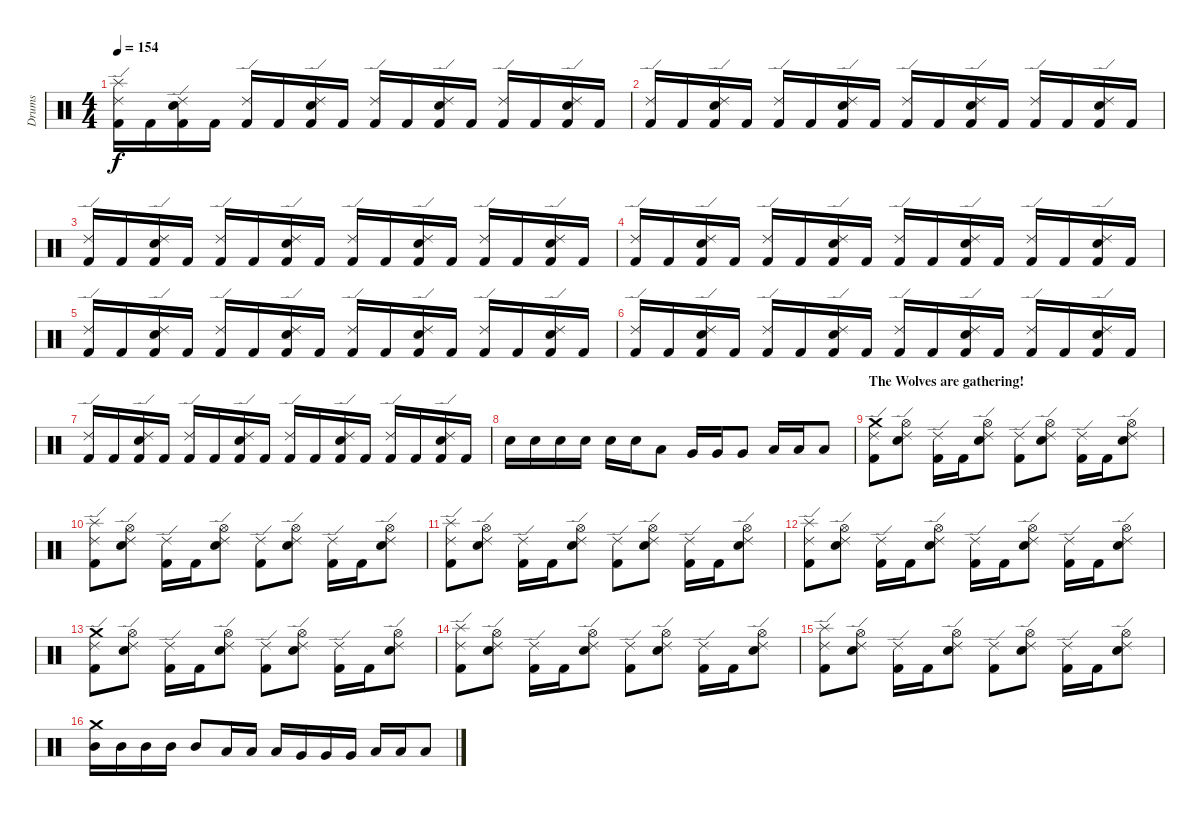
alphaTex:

\track ("Drums" "Drums") {instrument percussion}
\staff {score}
\articulation defaults
\ts (4 4)
\tempo 154
\clef neutral
\ks c
("Splash (hit)" "Ride (edge) 2" "Kick (hit) 2").16{dy f} "Kick (hit) 2".16 ("Ride (edge) 2" "Snare (hit) 2" "Kick (hit) 2").16 "Kick (hit) 2".16 ("Ride (edge) 2" "Kick (hit) 2").16 "Kick (hit) 2".16 ("Ride (edge) 2" "Snare (hit) 2" "Kick (hit) 2").16 "Kick (hit) 2".16 ("Ride (edge) 2" "Kick (hit) 2").16 "Kick (hit) 2".16 ("Ride (edge) 2" "Snare (hit) 2" "Kick (hit) 2").16 "Kick (hit) 2".16 ("Ride (edge) 2" "Kick (hit) 2").16 "Kick (hit) 2".16 ("Ride (edge) 2" "Snare (hit) 2" "Kick (hit) 2").16 "Kick (hit) 2".16 |
("Ride (edge) 2" "Kick (hit) 2").16 "Kick (hit) 2".16 ("Ride (edge) 2" "Snare (hit) 2" "Kick (hit) 2").16 "Kick (hit) 2".16 ("Ride (edge) 2" "Kick (hit) 2").16 "Kick (hit) 2".16 ("Ride (edge) 2" "Snare (hit) 2" "Kick (hit) 2").16 "Kick (hit) 2".16 ("Ride (edge) 2" "Kick (hit) 2").16 "Kick (hit) 2".16 ("Ride (edge) 2" "Snare (hit) 2" "Kick (hit) 2").16 "Kick (hit) 2".16 ("Ride (edge) 2" "Kick (hit) 2").16 "Kick (hit) 2".16 ("Ride (edge) 2" "Snare (hit) 2" "Kick (hit) 2").16 "Kick (hit) 2".16 |
("Ride (edge) 2" "Kick (hit) 2").16 "Kick (hit) 2".16 ("Ride (edge) 2" "Snare (hit) 2" "Kick (hit) 2").16 "Kick (hit) 2".16 ("Ride (edge) 2" "Kick (hit) 2").16 "Kick (hit) 2".16 ("Ride (edge) 2" "Snare (hit) 2" "Kick (hit) 2").16 "Kick (hit) 2".16 ("Ride (edge) 2" "Kick (hit) 2").16 "Kick (hit) 2".16 ("Ride (edge) 2" "Snare (hit) 2" "Kick (hit) 2").16 "Kick (hit) 2".16 ("Ride (edge) 2" "Kick (hit) 2").16 "Kick (hit) 2".16 ("Ride (edge) 2" "Snare (hit) 2" "Kick (hit) 2").16 "Kick (hit) 2".16 |
("Ride (edge) 2" "Kick (hit) 2").16 "Kick (hit) 2".16 ("Ride (edge) 2" "Snare (hit) 2" "Kick (hit) 2").16 "Kick (hit) 2".16 ("Ride (edge) 2" "Kick (hit) 2").16 "Kick (hit) 2".16 ("Ride (edge) 2" "Snare (hit) 2" "Kick (hit) 2").16 "Kick (hit) 2".16 ("Ride (edge) 2" "Kick (hit) 2").16 "Kick (hit) 2".16 ("Ride (edge) 2" "Snare (hit) 2" "Kick (hit) 2").16 "Kick (hit) 2".16 ("Ride (edge) 2" "Kick (hit) 2").16 "Kick (hit) 2".16 ("Ride (edge) 2" "Snare (hit) 2" "Kick (hit) 2").16 "Kick (hit) 2".16 |
("Ride (edge) 2" "Kick (hit) 2").16 "Kick (hit) 2".16 ("Ride (edge) 2" "Snare (hit) 2" "Kick (hit) 2").16 "Kick (hit) 2".16 ("Ride (edge) 2" "Kick (hit) 2").16 "Kick (hit) 2".16 ("Ride (edge) 2" "Snare (hit) 2" "Kick (hit) 2").16 "Kick (hit) 2".16 ("Ride (edge) 2" "Kick (hit) 2").16 "Kick (hit) 2".16 ("Ride (edge) 2" "Snare (hit) 2" "Kick (hit) 2").16 "Kick (hit) 2".16 ("Ride (edge) 2" "Kick (hit) 2").16 "Kick (hit) 2".16 ("Ride (edge) 2" "Snare (hit) 2" "Kick (hit) 2").16 "Kick (hit) 2".16 |
("Ride (edge) 2" "Kick (hit) 2").16 "Kick (hit) 2".16 ("Ride (edge) 2" "Snare (hit) 2" "Kick (hit) 2").16 "Kick (hit) 2".16 ("Ride (edge) 2" "Kick (hit) 2").16 "Kick (hit) 2".16 ("Ride (edge) 2" "Snare (hit) 2" "Kick (hit) 2").16 "Kick (hit) 2".16 ("Ride (edge) 2" "Kick (hit) 2").16 "Kick (hit) 2".16 ("Ride (edge) 2" "Snare (hit) 2" "Kick (hit) 2").16 "Kick (hit) 2".16 ("Ride (edge) 2" "Kick (hit) 2").16 "Kick (hit) 2".16 ("Ride (edge) 2" "Snare (hit) 2" "Kick (hit) 2").16 "Kick (hit) 2".16 |
("Ride (edge) 2" "Kick (hit) 2").16 "Kick (hit) 2".16 ("Ride (edge) 2" "Snare (hit) 2" "Kick (hit) 2").16 "Kick (hit) 2".16 ("Ride (edge) 2" "Kick (hit) 2").16 "Kick (hit) 2".16 ("Ride (edge) 2" "Snare (hit) 2" "Kick (hit) 2").16 "Kick (hit) 2".16 ("Ride (edge) 2" "Kick (hit) 2").16 "Kick (hit) 2".16 ("Ride (edge) 2" "Snare (hit) 2" "Kick (hit) 2").16 "Kick (hit) 2".16 ("Ride (edge) 2" "Kick (hit) 2").16 "Kick (hit) 2".16 ("Ride (edge) 2" "Snare (hit) 2" "Kick (hit) 2").16 "Kick (hit) 2".16 |
"Snare (hit) 2".16 "Snare (hit) 2".16 "Snare (hit) 2".16 "Snare (hit) 2".16 "Snare (hit) 2".16 "Snare (hit) 2".16 "Low Tom (hit)".8 "Very Low Tom (hit)".16 "Very Low Tom (hit)".16 "Very Low Tom (hit)".8 "Low Floor Tom (hit)".16 "Low Floor Tom (hit)".16 "Low Floor Tom (hit)".8 |
\section ("" "The Wolves are gathering!")
("Crash medium (hit)" "Ride (edge) 2" "Kick (hit) 2").8 ("Ride (edge) 2" "Hi-Hat (open)" "Snare (hit) 2").8 ("Ride (edge) 2" "Kick (hit) 2").16 "Kick (hit) 2".16 ("Ride (edge) 2" "Hi-Hat (open)" "Snare (hit) 2").8 ("Ride (edge) 2" "Kick (hit) 2").8 ("Ride (edge) 2" "Hi-Hat (open)" "Snare (hit) 2").8 ("Ride (edge) 2" "Kick (hit) 2").16 "Kick (hit) 2".16 ("Ride (edge) 2" "Hi-Hat (open)" "Snare (hit) 2").8 |
("Splash (hit)" "Ride (edge) 2" "Kick (hit) 2").8 ("Ride (edge) 2" "Hi-Hat (open)" "Snare (hit) 2").8 ("Ride (edge) 2" "Kick (hit) 2").16 "Kick (hit) 2".16 ("Ride (edge) 2" "Hi-Hat (open)" "Snare (hit) 2").8 ("Ride (edge) 2" "Kick (hit) 2").8 ("Ride (edge) 2" "Hi-Hat (open)" "Snare (hit) 2").8 ("Ride (edge) 2" "Kick (hit) 2").16 "Kick (hit) 2".16 ("Ride (edge) 2" "Hi-Hat (open)" "Snare (hit) 2").8 |
("Splash (hit)" "Ride (edge) 2" "Kick (hit) 2").8 ("Ride (edge) 2" "Hi-Hat (open)" "Snare (hit) 2").8 ("Ride (edge) 2" "Kick (hit) 2").16 "Kick (hit) 2".16 ("Ride (edge) 2" "Hi-Hat (open)" "Snare (hit) 2").8 ("Ride (edge) 2" "Kick (hit) 2").8 ("Ride (edge) 2" "Hi-Hat (open)" "Snare (hit) 2").8 ("Ride (edge) 2" "Kick (hit) 2").16 "Kick (hit) 2".16 ("Ride (edge) 2" "Hi-Hat (open)" "Snare (hit) 2").8 |
("Splash (hit)" "Ride (edge) 2" "Kick (hit) 2").8 ("Ride (edge) 2" "Hi-Hat (open)" "Snare (hit) 2").8 ("Ride (edge) 2" "Kick (hit) 2").16 "Kick (hit) 2".16 ("Ride (edge) 2" "Hi-Hat (open)" "Snare (hit) 2").8 ("Ride (edge) 2" "Kick (hit) 2").16 "Kick (hit) 2".16 ("Ride (edge) 2" "Hi-Hat (open)" "Snare (hit) 2").8 ("Ride (edge) 2" "Kick (hit) 2").16 "Kick (hit) 2".16 ("Ride (edge) 2" "Hi-Hat (open)" "Snare (hit) 2").8 |
("Crash medium (hit)" "Ride (edge) 2" "Kick (hit) 2").8 ("Ride (edge) 2" "Hi-Hat (open)" "Snare (hit) 2").8 ("Ride (edge) 2" "Kick (hit) 2").16 "Kick (hit) 2".16 ("Ride (edge) 2" "Hi-Hat (open)" "Snare (hit) 2").8 ("Ride (edge) 2" "Kick (hit) 2").8 ("Ride (edge) 2" "Hi-Hat (open)" "Snare (hit) 2").8 ("Ride (edge) 2" "Kick (hit) 2").16 "Kick (hit) 2".16 ("Ride (edge) 2" "Hi-Hat (open)" "Snare (hit) 2").8 |
("Splash (hit)" "Ride (edge) 2" "Kick (hit) 2").8 ("Ride (edge) 2" "Hi-Hat (open)" "Snare (hit) 2").8 ("Ride (edge) 2" "Kick (hit) 2").16 "Kick (hit) 2".16 ("Ride (edge) 2" "Hi-Hat (open)" "Snare (hit) 2").8 ("Ride (edge) 2" "Kick (hit) 2").8 ("Ride (edge) 2" "Hi-Hat (open)" "Snare (hit) 2").8 ("Ride (edge) 2" "Kick (hit) 2").16 "Kick (hit) 2".16 ("Ride (edge) 2" "Hi-Hat (open)" "Snare (hit) 2").8 |
("Splash (hit)" "Ride (edge) 2" "Kick (hit) 2").8 ("Ride (edge) 2" "Hi-Hat (open)" "Snare (hit) 2").8 ("Ride (edge) 2" "Kick (hit) 2").16 "Kick (hit) 2".16 ("Ride (edge) 2" "Hi-Hat (open)" "Snare (hit) 2").8 ("Ride (edge) 2" "Kick (hit) 2").8 ("Ride (edge) 2" "Hi-Hat (open)" "Snare (hit) 2").8 ("Ride (edge) 2" "Kick (hit) 2").16 "Kick (hit) 2".16 ("Ride (edge) 2" "Hi-Hat (open)" "Snare (hit) 2").8 |
("Crash medium (hit)" "Mid Tom (hit)").16 "Mid Tom (hit)".16 "Mid Tom (hit)".16 "Mid Tom (hit)".16 "Mid Tom (hit)".8 "Low Tom (hit)".16 "Low Tom (hit)".16 "Low Tom (hit)".16 "Very Low Tom (hit)".16 "Very Low Tom (hit)".16 "Very Low Tom (hit)".16 "Low Floor Tom (hit)".16 "Low Floor Tom (hit)".16 "Low Floor Tom (hit)".8
